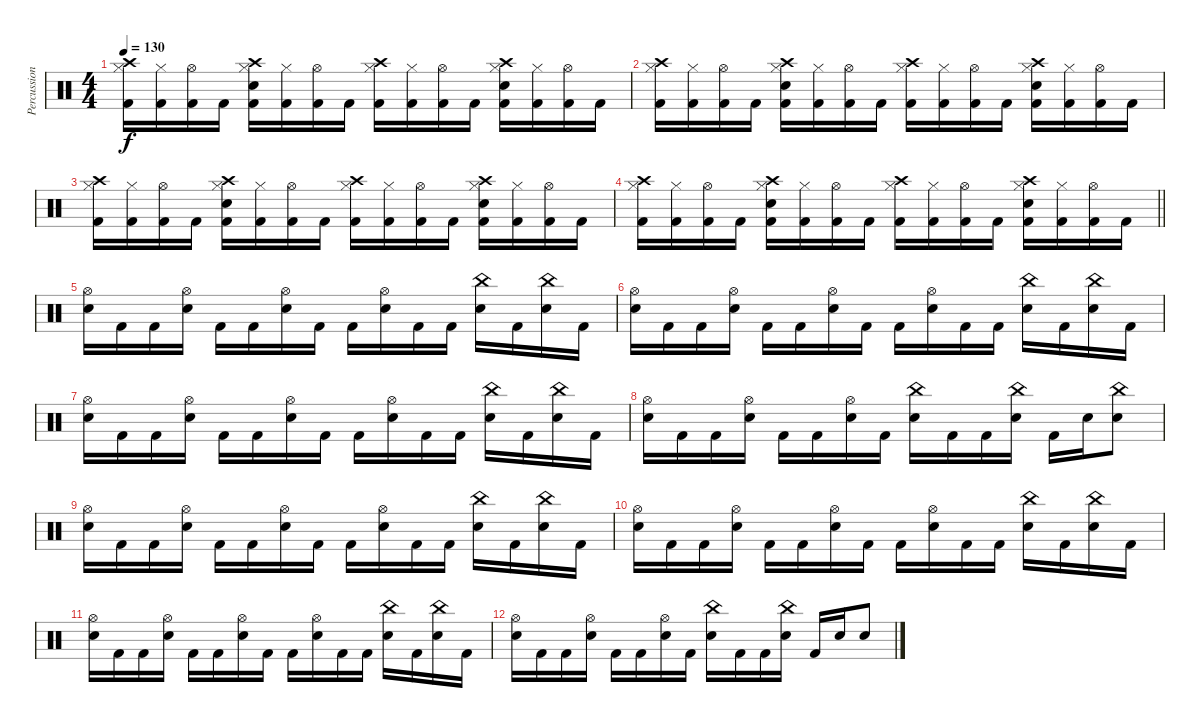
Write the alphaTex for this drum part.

\track ("Percussions" "Percussion") {instrument percussion}
\staff {score}
\articulation defaults
\ts (4 4)
\tempo 130
\clef neutral
\ks c
("Crash high (hit)" "Hi-Hat (closed)" "Kick (hit) 2").16{dy f} ("Hi-Hat (closed)" "Kick (hit) 2").16 ("Hi-Hat (open)" "Kick (hit) 2").16 "Kick (hit) 2".16 ("Crash high (hit)" "Hi-Hat (closed)" "Electric Snare (hit)" "Kick (hit) 2").16 ("Hi-Hat (closed)" "Kick (hit) 2").16 ("Hi-Hat (open)" "Kick (hit) 2").16 "Kick (hit) 2".16 ("Crash high (hit)" "Hi-Hat (closed)" "Kick (hit) 2").16 ("Hi-Hat (closed)" "Kick (hit) 2").16 ("Hi-Hat (open)" "Kick (hit) 2").16 "Kick (hit) 2".16 ("Crash high (hit)" "Hi-Hat (closed)" "Electric Snare (hit)" "Kick (hit) 2").16 ("Hi-Hat (closed)" "Kick (hit) 2").16 ("Hi-Hat (open)" "Kick (hit) 2").16 "Kick (hit) 2".16 |
("Crash high (hit)" "Hi-Hat (closed)" "Kick (hit) 2").16 ("Hi-Hat (closed)" "Kick (hit) 2").16 ("Hi-Hat (open)" "Kick (hit) 2").16 "Kick (hit) 2".16 ("Crash high (hit)" "Hi-Hat (closed)" "Electric Snare (hit)" "Kick (hit) 2").16 ("Hi-Hat (closed)" "Kick (hit) 2").16 ("Hi-Hat (open)" "Kick (hit) 2").16 "Kick (hit) 2".16 ("Crash high (hit)" "Hi-Hat (closed)" "Kick (hit) 2").16 ("Hi-Hat (closed)" "Kick (hit) 2").16 ("Hi-Hat (open)" "Kick (hit) 2").16 "Kick (hit) 2".16 ("Crash high (hit)" "Hi-Hat (closed)" "Electric Snare (hit)" "Kick (hit) 2").16 ("Hi-Hat (closed)" "Kick (hit) 2").16 ("Hi-Hat (open)" "Kick (hit) 2").16 "Kick (hit) 2".16 |
("Crash high (hit)" "Hi-Hat (closed)" "Kick (hit) 2").16 ("Hi-Hat (closed)" "Kick (hit) 2").16 ("Hi-Hat (open)" "Kick (hit) 2").16 "Kick (hit) 2".16 ("Crash high (hit)" "Hi-Hat (closed)" "Electric Snare (hit)" "Kick (hit) 2").16 ("Hi-Hat (closed)" "Kick (hit) 2").16 ("Hi-Hat (open)" "Kick (hit) 2").16 "Kick (hit) 2".16 ("Crash high (hit)" "Hi-Hat (closed)" "Kick (hit) 2").16 ("Hi-Hat (closed)" "Kick (hit) 2").16 ("Hi-Hat (open)" "Kick (hit) 2").16 "Kick (hit) 2".16 ("Crash high (hit)" "Hi-Hat (closed)" "Electric Snare (hit)" "Kick (hit) 2").16 ("Hi-Hat (closed)" "Kick (hit) 2").16 ("Hi-Hat (open)" "Kick (hit) 2").16 "Kick (hit) 2".16 |
\barLineRight lightlight
("Crash high (hit)" "Hi-Hat (closed)" "Kick (hit) 2").16 ("Hi-Hat (closed)" "Kick (hit) 2").16 ("Hi-Hat (open)" "Kick (hit) 2").16 "Kick (hit) 2".16 ("Crash high (hit)" "Hi-Hat (closed)" "Electric Snare (hit)" "Kick (hit) 2").16 ("Hi-Hat (closed)" "Kick (hit) 2").16 ("Hi-Hat (open)" "Kick (hit) 2").16 "Kick (hit) 2".16 ("Crash high (hit)" "Hi-Hat (closed)" "Kick (hit) 2").16 ("Hi-Hat (closed)" "Kick (hit) 2").16 ("Hi-Hat (open)" "Kick (hit) 2").16 "Kick (hit) 2".16 ("Crash high (hit)" "Hi-Hat (closed)" "Electric Snare (hit)" "Kick (hit) 2").16 ("Hi-Hat (closed)" "Kick (hit) 2").16 ("Hi-Hat (open)" "Kick (hit) 2").16 "Kick (hit) 2".16 |
\section ("" "")
("Hi-Hat (open)" "Electric Snare (hit)").16 "Kick (hit) 2".16 "Kick (hit) 2".16 ("Hi-Hat (open)" "Electric Snare (hit)").16 "Kick (hit) 2".16 "Kick (hit) 2".16 ("Hi-Hat (open)" "Electric Snare (hit)").16 "Kick (hit) 2".16 "Kick (hit) 2".16 ("Hi-Hat (open)" "Electric Snare (hit)").16 "Kick (hit) 2".16 "Kick (hit) 2".16 ("China (hit)" "Electric Snare (hit)").16 "Kick (hit) 2".16 ("China (hit)" "Electric Snare (hit)").16 "Kick (hit) 2".16 |
("Hi-Hat (open)" "Electric Snare (hit)").16 "Kick (hit) 2".16 "Kick (hit) 2".16 ("Hi-Hat (open)" "Electric Snare (hit)").16 "Kick (hit) 2".16 "Kick (hit) 2".16 ("Hi-Hat (open)" "Electric Snare (hit)").16 "Kick (hit) 2".16 "Kick (hit) 2".16 ("Hi-Hat (open)" "Electric Snare (hit)").16 "Kick (hit) 2".16 "Kick (hit) 2".16 ("China (hit)" "Electric Snare (hit)").16 "Kick (hit) 2".16 ("China (hit)" "Electric Snare (hit)").16 "Kick (hit) 2".16 |
("Hi-Hat (open)" "Electric Snare (hit)").16 "Kick (hit) 2".16 "Kick (hit) 2".16 ("Hi-Hat (open)" "Electric Snare (hit)").16 "Kick (hit) 2".16 "Kick (hit) 2".16 ("Hi-Hat (open)" "Electric Snare (hit)").16 "Kick (hit) 2".16 "Kick (hit) 2".16 ("Hi-Hat (open)" "Electric Snare (hit)").16 "Kick (hit) 2".16 "Kick (hit) 2".16 ("China (hit)" "Electric Snare (hit)").16 "Kick (hit) 2".16 ("China (hit)" "Electric Snare (hit)").16 "Kick (hit) 2".16 |
("Hi-Hat (open)" "Electric Snare (hit)").16 "Kick (hit) 2".16 "Kick (hit) 2".16 ("Hi-Hat (open)" "Electric Snare (hit)").16 "Kick (hit) 2".16 "Kick (hit) 2".16 ("Hi-Hat (open)" "Electric Snare (hit)").16 "Kick (hit) 2".16 ("China (hit)" "Electric Snare (hit)").16 "Kick (hit) 2".16 "Kick (hit) 2".16 ("China (hit)" "Electric Snare (hit)").16 "Kick (hit) 2".16 "Electric Snare (hit)".16 ("China (hit)" "Electric Snare (hit)").8 |
("Hi-Hat (open)" "Electric Snare (hit)").16 "Kick (hit) 2".16 "Kick (hit) 2".16 ("Hi-Hat (open)" "Electric Snare (hit)").16 "Kick (hit) 2".16 "Kick (hit) 2".16 ("Hi-Hat (open)" "Electric Snare (hit)").16 "Kick (hit) 2".16 "Kick (hit) 2".16 ("Hi-Hat (open)" "Electric Snare (hit)").16 "Kick (hit) 2".16 "Kick (hit) 2".16 ("China (hit)" "Electric Snare (hit)").16 "Kick (hit) 2".16 ("China (hit)" "Electric Snare (hit)").16 "Kick (hit) 2".16 |
("Hi-Hat (open)" "Electric Snare (hit)").16 "Kick (hit) 2".16 "Kick (hit) 2".16 ("Hi-Hat (open)" "Electric Snare (hit)").16 "Kick (hit) 2".16 "Kick (hit) 2".16 ("Hi-Hat (open)" "Electric Snare (hit)").16 "Kick (hit) 2".16 "Kick (hit) 2".16 ("Hi-Hat (open)" "Electric Snare (hit)").16 "Kick (hit) 2".16 "Kick (hit) 2".16 ("China (hit)" "Electric Snare (hit)").16 "Kick (hit) 2".16 ("China (hit)" "Electric Snare (hit)").16 "Kick (hit) 2".16 |
("Hi-Hat (open)" "Electric Snare (hit)").16 "Kick (hit) 2".16 "Kick (hit) 2".16 ("Hi-Hat (open)" "Electric Snare (hit)").16 "Kick (hit) 2".16 "Kick (hit) 2".16 ("Hi-Hat (open)" "Electric Snare (hit)").16 "Kick (hit) 2".16 "Kick (hit) 2".16 ("Hi-Hat (open)" "Electric Snare (hit)").16 "Kick (hit) 2".16 "Kick (hit) 2".16 ("China (hit)" "Electric Snare (hit)").16 "Kick (hit) 2".16 ("China (hit)" "Electric Snare (hit)").16 "Kick (hit) 2".16 |
("Hi-Hat (open)" "Electric Snare (hit)").16 "Kick (hit) 2".16 "Kick (hit) 2".16 ("Hi-Hat (open)" "Electric Snare (hit)").16 "Kick (hit) 2".16 "Kick (hit) 2".16 ("Hi-Hat (open)" "Electric Snare (hit)").16 "Kick (hit) 2".16 ("China (hit)" "Electric Snare (hit)").16 "Kick (hit) 2".16 "Kick (hit) 2".16 ("China (hit)" "Electric Snare (hit)").16 "Kick (hit) 2".16 "Electric Snare (hit)".16 "Electric Snare (hit)".8
